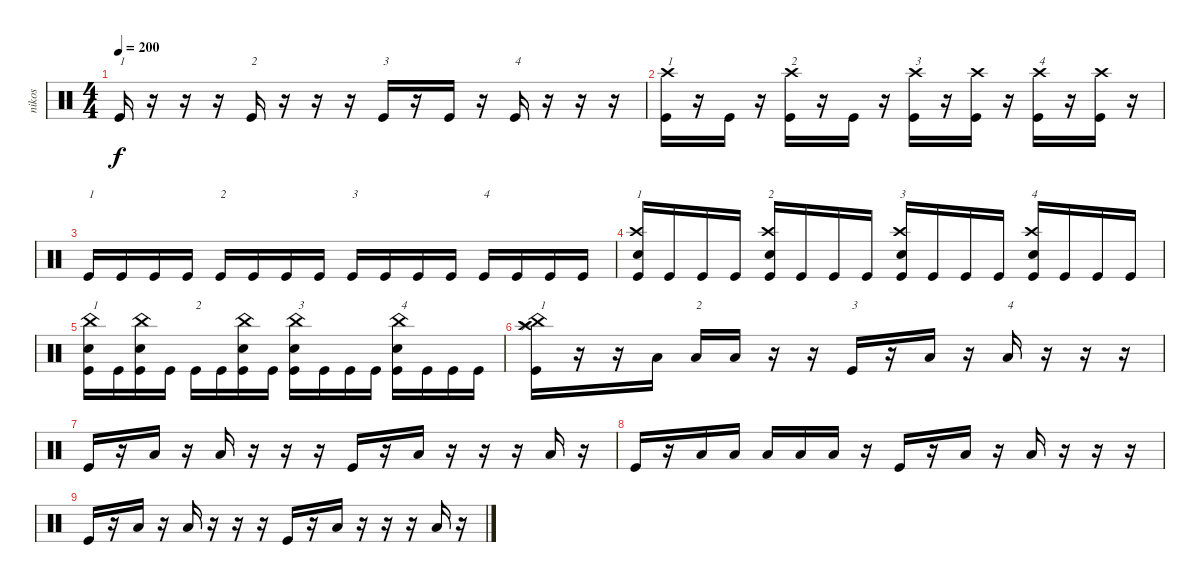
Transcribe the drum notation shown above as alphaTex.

\track ("nikos" "nikos") {instrument percussion}
\staff {score}
\articulation defaults
\ts (4 4)
\tempo 200
\clef neutral
\ks c "Kick (hit)".16{txt "1" dy f}
r.16 r.16 r.16 "Kick (hit)".16{txt "2"} r.16 r.16 r.16 "Kick (hit)".16{txt "3"} r.16 "Kick (hit)".16 r.16 "Kick (hit)".16{txt "4"} r.16 r.16 r.16 |
("Crash high (hit)" "Kick (hit)").16{txt "1"} r.16 "Kick (hit)".16 r.16 ("Crash high (hit)" "Kick (hit)").16{txt "2"} r.16 "Kick (hit)".16 r.16 ("Crash high (hit)" "Kick (hit)").16{txt "3"} r.16 ("Crash high (hit)" "Kick (hit)").16 r.16 ("Crash high (hit)" "Kick (hit)").16{txt "4"} r.16 ("Crash high (hit)" "Kick (hit)").16 r.16 |
"Kick (hit)".16{txt "1"} "Kick (hit)".16 "Kick (hit)".16 "Kick (hit)".16 "Kick (hit)".16{txt "2"} "Kick (hit)".16 "Kick (hit)".16 "Kick (hit)".16 "Kick (hit)".16{txt "3"} "Kick (hit)".16 "Kick (hit)".16 "Kick (hit)".16 "Kick (hit)".16{txt "4"} "Kick (hit)".16 "Kick (hit)".16 "Kick (hit)".16 |
("Crash high (hit)" "Electric Snare (hit)" "Kick (hit)").16{txt "1"} "Kick (hit)".16 "Kick (hit)".16 "Kick (hit)".16 ("Crash high (hit)" "Electric Snare (hit)" "Kick (hit)").16{txt "2"} "Kick (hit)".16 "Kick (hit)".16 "Kick (hit)".16 ("Crash high (hit)" "Electric Snare (hit)" "Kick (hit)").16{txt "3"} "Kick (hit)".16 "Kick (hit)".16 "Kick (hit)".16 ("Crash high (hit)" "Electric Snare (hit)" "Kick (hit)").16{txt "4"} "Kick (hit)".16 "Kick (hit)".16 "Kick (hit)".16 |
("China (hit)" "Electric Snare (hit)" "Kick (hit)").16{txt "1"} "Kick (hit)".16 ("China (hit)" "Electric Snare (hit)" "Kick (hit)").16 "Kick (hit)".16 "Kick (hit)".16{txt "2"} "Kick (hit)".16 ("China (hit)" "Electric Snare (hit)" "Kick (hit)").16 "Kick (hit)".16 ("China (hit)" "Electric Snare (hit)" "Kick (hit)").16{txt "3"} "Kick (hit)".16 "Kick (hit)".16 "Kick (hit)".16 ("China (hit)" "Electric Snare (hit)" "Kick (hit)").16{txt "4"} "Kick (hit)".16 "Kick (hit)".16 "Kick (hit)".16 |
("Splash (hit)" "Crash high (hit)" "China (hit)" "Kick (hit)").16{txt "1"} r.16 r.16 "Low Tom (hit)".16 "Low Tom (hit)".16{txt "2"} "Low Tom (hit)".16 r.16 r.16 "Kick (hit)".16{txt "3"} r.16 "Low Tom (hit)".16 r.16 "Low Tom (hit)".16{txt "4"} r.16 r.16 r.16 |
"Kick (hit)".16 r.16 "Low Tom (hit)".16 r.16 "Low Tom (hit)".16 r.16 r.16 r.16 "Kick (hit)".16 r.16 "Low Tom (hit)".16 r.16 r.16 r.16 "Low Tom (hit)".16 r.16 |
"Kick (hit)".16 r.16 "Low Tom (hit)".16 "Low Tom (hit)".16 "Low Tom (hit)".16 "Low Tom (hit)".16 "Low Tom (hit)".16 r.16 "Kick (hit)".16 r.16 "Low Tom (hit)".16 r.16 "Low Tom (hit)".16 r.16 r.16 r.16 |
"Kick (hit)".16 r.16 "Low Tom (hit)".16 r.16 "Low Tom (hit)".16 r.16 r.16 r.16 "Kick (hit)".16 r.16 "Low Tom (hit)".16 r.16 r.16 r.16 "Low Tom (hit)".16 r.16
